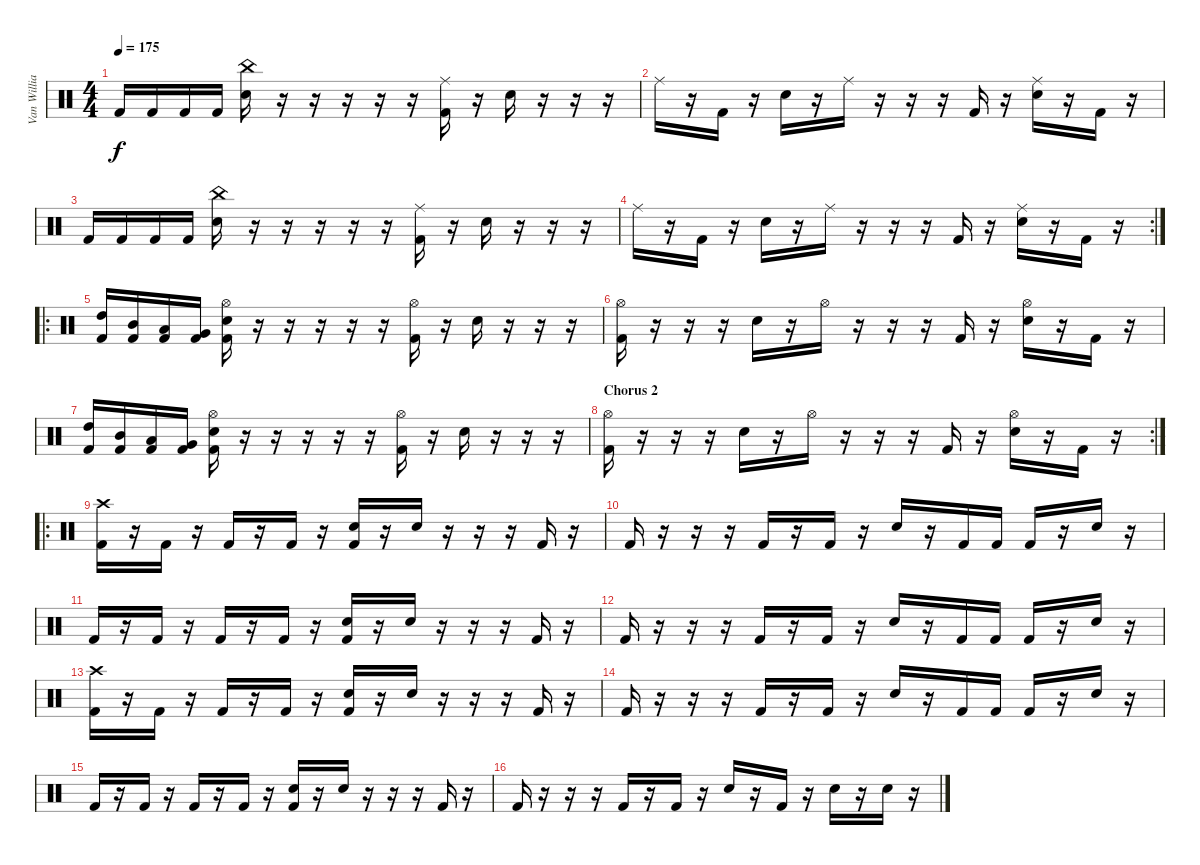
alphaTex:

\track ("Van Williams" "Van Willia") {instrument percussion}
\staff {score}
\articulation defaults
\ts (4 4)
\tempo 175
\clef neutral
\ks c "Kick (hit) 2".16{dy f} "Kick (hit) 2".16 "Kick (hit) 2".16 "Kick (hit) 2".16
("China (hit)" "Electric Snare (hit)").16 r.16 r.16 r.16 r.16 r.16 ("Ride (middle)" "Kick (hit) 2").16 r.16 "Electric Snare (hit)".16 r.16 r.16 r.16 |
"Ride (middle)".16 r.16 "Kick (hit) 2".16 r.16 "Electric Snare (hit)".16 r.16 "Ride (middle)".16 r.16 r.16 r.16 "Kick (hit) 2".16 r.16 ("Ride (middle)" "Electric Snare (hit)").16 r.16 "Kick (hit) 2".16 r.16 |
"Kick (hit) 2".16 "Kick (hit) 2".16 "Kick (hit) 2".16 "Kick (hit) 2".16 ("China (hit)" "Electric Snare (hit)").16 r.16 r.16 r.16 r.16 r.16 ("Ride (middle)" "Kick (hit) 2").16 r.16 "Electric Snare (hit)".16 r.16 r.16 r.16 |
\rc 2 "Ride (middle)".16
r.16 "Kick (hit) 2".16 r.16 "Electric Snare (hit)".16 r.16 "Ride (middle)".16 r.16 r.16 r.16 "Kick (hit) 2".16 r.16 ("Ride (middle)" "Electric Snare (hit)").16 r.16 "Kick (hit) 2".16 r.16 |
\ro
("Kick (hit) 2" "High Tom (hit)").16 ("Kick (hit) 2" "Mid Tom (hit)").16 ("Kick (hit) 2" "Low Tom (hit)").16 ("Kick (hit) 2" "Very Low Tom (hit)").16 ("Hi-Hat (open)" "Kick (hit) 2" "Electric Snare (hit)").16 r.16 r.16 r.16 r.16 r.16 ("Hi-Hat (open)" "Kick (hit) 2").16 r.16 "Electric Snare (hit)".16 r.16 r.16 r.16 |
("Hi-Hat (open)" "Kick (hit) 2").16 r.16 r.16 r.16 "Electric Snare (hit)".16 r.16 "Hi-Hat (open)".16 r.16 r.16 r.16 "Kick (hit) 2".16 r.16 ("Hi-Hat (open)" "Electric Snare (hit)").16 r.16 "Kick (hit) 2".16 r.16 |
("Kick (hit) 2" "High Tom (hit)").16 ("Kick (hit) 2" "Mid Tom (hit)").16 ("Kick (hit) 2" "Low Tom (hit)").16 ("Kick (hit) 2" "Very Low Tom (hit)").16 ("Hi-Hat (open)" "Kick (hit) 2" "Electric Snare (hit)").16 r.16 r.16 r.16 r.16 r.16 ("Hi-Hat (open)" "Kick (hit) 2").16 r.16 "Electric Snare (hit)".16 r.16 r.16 r.16 |
\rc 2
\section ("" "Chorus 2")
("Hi-Hat (open)" "Kick (hit) 2").16 r.16 r.16 r.16 "Electric Snare (hit)".16 r.16 "Hi-Hat (open)".16 r.16 r.16 r.16 "Kick (hit) 2".16 r.16 ("Hi-Hat (open)" "Electric Snare (hit)").16 r.16 "Kick (hit) 2".16 r.16 |
\ro
("Crash high (hit)" "Kick (hit) 2").16 r.16 "Kick (hit) 2".16 r.16 "Kick (hit) 2".16 r.16 "Kick (hit) 2".16 r.16 ("Kick (hit) 2" "Electric Snare (hit)").16 r.16 "Electric Snare (hit)".16 r.16 r.16 r.16 "Kick (hit) 2".16 r.16 |
"Kick (hit) 2".16 r.16 r.16 r.16 "Kick (hit) 2".16 r.16 "Kick (hit) 2".16 r.16 "Electric Snare (hit)".16 r.16 "Kick (hit) 2".16 "Kick (hit) 2".16 "Kick (hit) 2".16 r.16 "Electric Snare (hit)".16 r.16 |
"Kick (hit) 2".16 r.16 "Kick (hit) 2".16 r.16 "Kick (hit) 2".16 r.16 "Kick (hit) 2".16 r.16 ("Kick (hit) 2" "Electric Snare (hit)").16 r.16 "Electric Snare (hit)".16 r.16 r.16 r.16 "Kick (hit) 2".16 r.16 |
"Kick (hit) 2".16 r.16 r.16 r.16 "Kick (hit) 2".16 r.16 "Kick (hit) 2".16 r.16 "Electric Snare (hit)".16 r.16 "Kick (hit) 2".16 "Kick (hit) 2".16 "Kick (hit) 2".16 r.16 "Electric Snare (hit)".16 r.16 |
("Crash high (hit)" "Kick (hit) 2").16 r.16 "Kick (hit) 2".16 r.16 "Kick (hit) 2".16 r.16 "Kick (hit) 2".16 r.16 ("Kick (hit) 2" "Electric Snare (hit)").16 r.16 "Electric Snare (hit)".16 r.16 r.16 r.16 "Kick (hit) 2".16 r.16 |
"Kick (hit) 2".16 r.16 r.16 r.16 "Kick (hit) 2".16 r.16 "Kick (hit) 2".16 r.16 "Electric Snare (hit)".16 r.16 "Kick (hit) 2".16 "Kick (hit) 2".16 "Kick (hit) 2".16 r.16 "Electric Snare (hit)".16 r.16 |
"Kick (hit) 2".16 r.16 "Kick (hit) 2".16 r.16 "Kick (hit) 2".16 r.16 "Kick (hit) 2".16 r.16 ("Kick (hit) 2" "Electric Snare (hit)").16 r.16 "Electric Snare (hit)".16 r.16 r.16 r.16 "Kick (hit) 2".16 r.16 |
"Kick (hit) 2".16 r.16 r.16 r.16 "Kick (hit) 2".16 r.16 "Kick (hit) 2".16 r.16 "Electric Snare (hit)".16 r.16 "Kick (hit) 2".16 r.16 "Electric Snare (hit)".16 r.16 "Electric Snare (hit)".16 r.16
